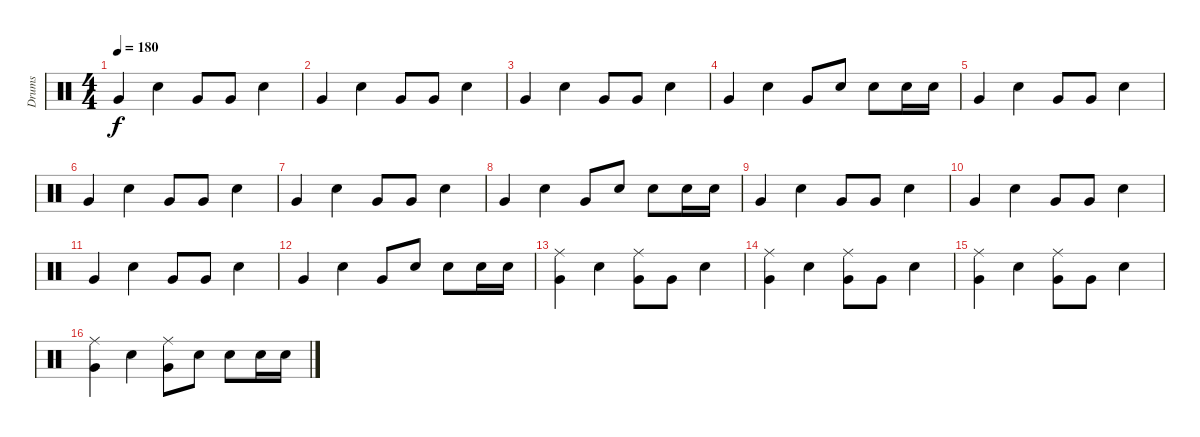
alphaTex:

\track ("Drums" "Drums") {instrument percussion}
\staff {score}
\articulation defaults
\ts (4 4)
\tempo 180
\clef neutral
\ks c "Very Low Tom (hit)".4{dy f} "Electric Snare (hit)".4 "Very Low Tom (hit)".8 "Very Low Tom (hit)".8 "Electric Snare (hit)".4
|
"Very Low Tom (hit)".4 "Electric Snare (hit)".4 "Very Low Tom (hit)".8 "Very Low Tom (hit)".8 "Electric Snare (hit)".4 |
"Very Low Tom (hit)".4 "Electric Snare (hit)".4 "Very Low Tom (hit)".8 "Very Low Tom (hit)".8 "Electric Snare (hit)".4 |
"Very Low Tom (hit)".4 "Electric Snare (hit)".4 "Very Low Tom (hit)".8 "Electric Snare (hit)".8 "Electric Snare (hit)".8 "Electric Snare (hit)".16 "Electric Snare (hit)".16 |
"Very Low Tom (hit)".4 "Electric Snare (hit)".4 "Very Low Tom (hit)".8 "Very Low Tom (hit)".8 "Electric Snare (hit)".4 |
"Very Low Tom (hit)".4 "Electric Snare (hit)".4 "Very Low Tom (hit)".8 "Very Low Tom (hit)".8 "Electric Snare (hit)".4 |
"Very Low Tom (hit)".4 "Electric Snare (hit)".4 "Very Low Tom (hit)".8 "Very Low Tom (hit)".8 "Electric Snare (hit)".4 |
"Very Low Tom (hit)".4 "Electric Snare (hit)".4 "Very Low Tom (hit)".8 "Electric Snare (hit)".8 "Electric Snare (hit)".8 "Electric Snare (hit)".16 "Electric Snare (hit)".16 |
"Very Low Tom (hit)".4 "Electric Snare (hit)".4 "Very Low Tom (hit)".8 "Very Low Tom (hit)".8 "Electric Snare (hit)".4 |
"Very Low Tom (hit)".4 "Electric Snare (hit)".4 "Very Low Tom (hit)".8 "Very Low Tom (hit)".8 "Electric Snare (hit)".4 |
"Very Low Tom (hit)".4 "Electric Snare (hit)".4 "Very Low Tom (hit)".8 "Very Low Tom (hit)".8 "Electric Snare (hit)".4 |
"Very Low Tom (hit)".4 "Electric Snare (hit)".4 "Very Low Tom (hit)".8 "Electric Snare (hit)".8 "Electric Snare (hit)".8 "Electric Snare (hit)".16 "Electric Snare (hit)".16 |
("Very Low Tom (hit)" "Ride (middle)").4 "Electric Snare (hit)".4 ("Very Low Tom (hit)" "Ride (middle)").8 "Very Low Tom (hit)".8 "Electric Snare (hit)".4 |
("Very Low Tom (hit)" "Ride (middle)").4 "Electric Snare (hit)".4 ("Very Low Tom (hit)" "Ride (middle)").8 "Very Low Tom (hit)".8 "Electric Snare (hit)".4 |
("Very Low Tom (hit)" "Ride (middle)").4 "Electric Snare (hit)".4 ("Very Low Tom (hit)" "Ride (middle)").8 "Very Low Tom (hit)".8 "Electric Snare (hit)".4 |
("Very Low Tom (hit)" "Ride (middle)").4 "Electric Snare (hit)".4 ("Very Low Tom (hit)" "Ride (middle)").8 "Electric Snare (hit)".8 "Electric Snare (hit)".8 "Electric Snare (hit)".16 "Electric Snare (hit)".16
